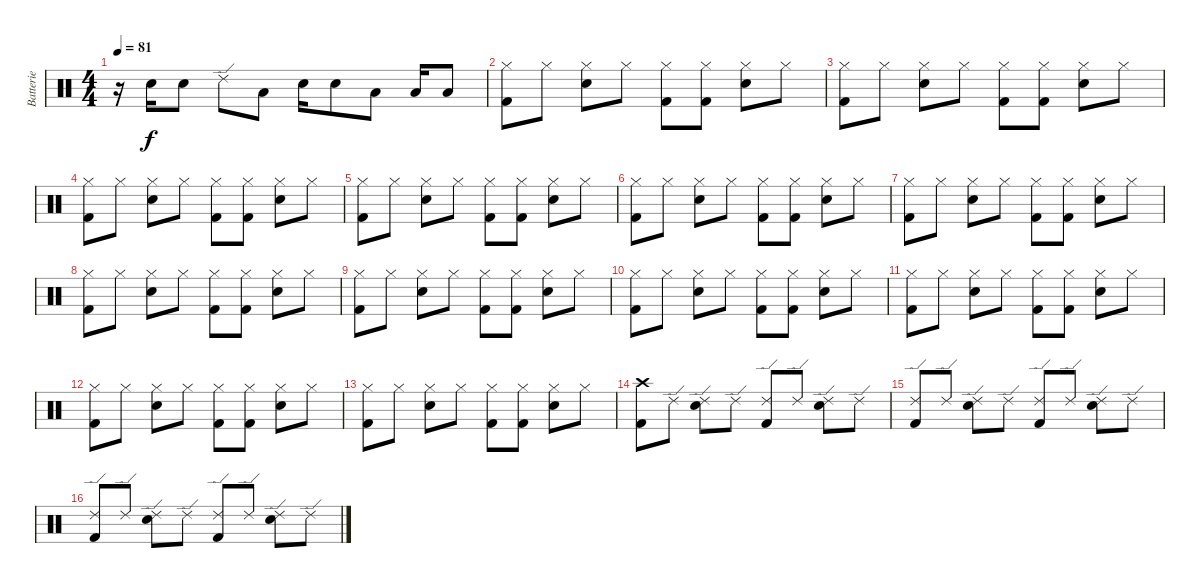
\track ("Batterie" "Batterie") {instrument percussion}
\staff {score}
\articulation defaults
\ts (4 4)
\tempo 81
\clef neutral
\ks c
r.16{dy f} "Electric Snare (hit)".16 "Electric Snare (hit)".8 "Ride (edge) 2".8 "Low Tom (hit)".8 "Electric Snare (hit)".16 "Electric Snare (hit)".8 "Low Tom (hit)".8 "Low Tom (hit)".16 "Low Tom (hit)".8 |
("Hi-Hat (closed)" "Kick (hit) 2").8 "Hi-Hat (closed)".8 ("Hi-Hat (closed)" "Electric Snare (hit)").8 "Hi-Hat (closed)".8 ("Hi-Hat (closed)" "Kick (hit) 2").8 ("Hi-Hat (closed)" "Kick (hit) 2").8 ("Hi-Hat (closed)" "Electric Snare (hit)").8 "Hi-Hat (closed)".8 |
("Hi-Hat (closed)" "Kick (hit) 2").8 "Hi-Hat (closed)".8 ("Hi-Hat (closed)" "Electric Snare (hit)").8 "Hi-Hat (closed)".8 ("Hi-Hat (closed)" "Kick (hit) 2").8 ("Hi-Hat (closed)" "Kick (hit) 2").8 ("Hi-Hat (closed)" "Electric Snare (hit)").8 "Hi-Hat (closed)".8 |
("Hi-Hat (closed)" "Kick (hit) 2").8 "Hi-Hat (closed)".8 ("Hi-Hat (closed)" "Electric Snare (hit)").8 "Hi-Hat (closed)".8 ("Hi-Hat (closed)" "Kick (hit) 2").8 ("Hi-Hat (closed)" "Kick (hit) 2").8 ("Hi-Hat (closed)" "Electric Snare (hit)").8 "Hi-Hat (closed)".8 |
("Hi-Hat (closed)" "Kick (hit) 2").8 "Hi-Hat (closed)".8 ("Hi-Hat (closed)" "Electric Snare (hit)").8 "Hi-Hat (closed)".8 ("Hi-Hat (closed)" "Kick (hit) 2").8 ("Hi-Hat (closed)" "Kick (hit) 2").8 ("Hi-Hat (closed)" "Electric Snare (hit)").8 "Hi-Hat (closed)".8 |
("Hi-Hat (closed)" "Kick (hit) 2").8 "Hi-Hat (closed)".8 ("Hi-Hat (closed)" "Electric Snare (hit)").8 "Hi-Hat (closed)".8 ("Hi-Hat (closed)" "Kick (hit) 2").8 ("Hi-Hat (closed)" "Kick (hit) 2").8 ("Hi-Hat (closed)" "Electric Snare (hit)").8 "Hi-Hat (closed)".8 |
("Hi-Hat (closed)" "Kick (hit) 2").8 "Hi-Hat (closed)".8 ("Hi-Hat (closed)" "Electric Snare (hit)").8 "Hi-Hat (closed)".8 ("Hi-Hat (closed)" "Kick (hit) 2").8 ("Hi-Hat (closed)" "Kick (hit) 2").8 ("Hi-Hat (closed)" "Electric Snare (hit)").8 "Hi-Hat (closed)".8 |
("Hi-Hat (closed)" "Kick (hit) 2").8 "Hi-Hat (closed)".8 ("Hi-Hat (closed)" "Electric Snare (hit)").8 "Hi-Hat (closed)".8 ("Hi-Hat (closed)" "Kick (hit) 2").8 ("Hi-Hat (closed)" "Kick (hit) 2").8 ("Hi-Hat (closed)" "Electric Snare (hit)").8 "Hi-Hat (closed)".8 |
("Hi-Hat (closed)" "Kick (hit) 2").8 "Hi-Hat (closed)".8 ("Hi-Hat (closed)" "Electric Snare (hit)").8 "Hi-Hat (closed)".8 ("Hi-Hat (closed)" "Kick (hit) 2").8 ("Hi-Hat (closed)" "Kick (hit) 2").8 ("Hi-Hat (closed)" "Electric Snare (hit)").8 "Hi-Hat (closed)".8 |
("Hi-Hat (closed)" "Kick (hit) 2").8 "Hi-Hat (closed)".8 ("Hi-Hat (closed)" "Electric Snare (hit)").8 "Hi-Hat (closed)".8 ("Hi-Hat (closed)" "Kick (hit) 2").8 ("Hi-Hat (closed)" "Kick (hit) 2").8 ("Hi-Hat (closed)" "Electric Snare (hit)").8 "Hi-Hat (closed)".8 |
("Hi-Hat (closed)" "Kick (hit) 2").8 "Hi-Hat (closed)".8 ("Hi-Hat (closed)" "Electric Snare (hit)").8 "Hi-Hat (closed)".8 ("Hi-Hat (closed)" "Kick (hit) 2").8 ("Hi-Hat (closed)" "Kick (hit) 2").8 ("Hi-Hat (closed)" "Electric Snare (hit)").8 "Hi-Hat (closed)".8 |
("Hi-Hat (closed)" "Kick (hit) 2").8 "Hi-Hat (closed)".8 ("Hi-Hat (closed)" "Electric Snare (hit)").8 "Hi-Hat (closed)".8 ("Hi-Hat (closed)" "Kick (hit) 2").8 ("Hi-Hat (closed)" "Kick (hit) 2").8 ("Hi-Hat (closed)" "Electric Snare (hit)").8 "Hi-Hat (closed)".8 |
("Hi-Hat (closed)" "Kick (hit) 2").8 "Hi-Hat (closed)".8 ("Hi-Hat (closed)" "Electric Snare (hit)").8 "Hi-Hat (closed)".8 ("Hi-Hat (closed)" "Kick (hit) 2").8 ("Hi-Hat (closed)" "Kick (hit) 2").8 ("Hi-Hat (closed)" "Electric Snare (hit)").8 "Hi-Hat (closed)".8 |
("Crash high (hit)" "Kick (hit) 2").8 "Ride (edge) 2".8 ("Ride (edge) 2" "Electric Snare (hit)").8 "Ride (edge) 2".8 ("Ride (edge) 2" "Kick (hit) 2").8 "Ride (edge) 2".8 ("Ride (edge) 2" "Electric Snare (hit)").8 "Ride (edge) 2".8 |
("Ride (edge) 2" "Kick (hit) 2").8 "Ride (edge) 2".8 ("Ride (edge) 2" "Electric Snare (hit)").8 "Ride (edge) 2".8 ("Ride (edge) 2" "Kick (hit) 2").8 "Ride (edge) 2".8 ("Ride (edge) 2" "Electric Snare (hit)").8 "Ride (edge) 2".8 |
("Ride (edge) 2" "Kick (hit) 2").8 "Ride (edge) 2".8 ("Ride (edge) 2" "Electric Snare (hit)").8 "Ride (edge) 2".8 ("Ride (edge) 2" "Kick (hit) 2").8 "Ride (edge) 2".8 ("Ride (edge) 2" "Electric Snare (hit)").8 "Ride (edge) 2".8
